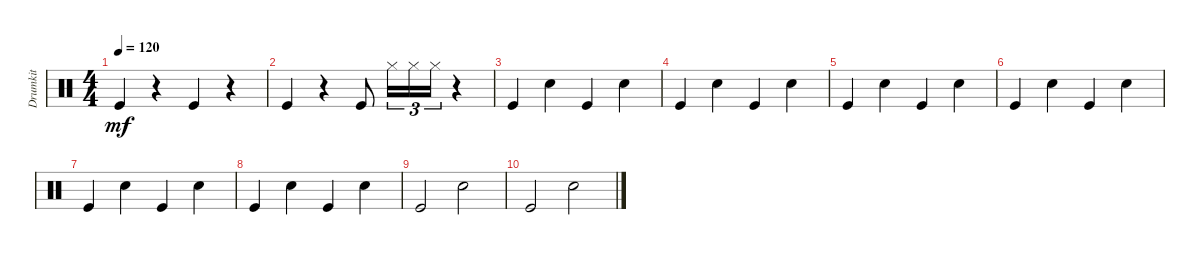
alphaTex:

\track ("Drumkit" "Drumkit") {instrument percussion}
\staff {score}
\articulation defaults
\ts (4 4)
\tempo 120
\clef neutral
\ks c "Kick (hit)".4{dy mf}
r.4 "Kick (hit)".4 r.4 |
"Kick (hit)".4 r.4 "Kick (hit)".8 "Hi-Hat (closed)".16{tu (3 2)} "Hi-Hat (closed)".16{tu (3 2)} "Hi-Hat (closed)".16{tu (3 2)} r.4 |
"Kick (hit)".4 "Snare (hit) 2".4 "Kick (hit)".4 "Snare (hit) 2".4 |
"Kick (hit)".4 "Snare (hit) 2".4 "Kick (hit)".4 "Snare (hit) 2".4 |
"Kick (hit)".4 "Snare (hit) 2".4 "Kick (hit)".4 "Snare (hit) 2".4 |
"Kick (hit)".4 "Snare (hit) 2".4 "Kick (hit)".4 "Snare (hit) 2".4 |
"Kick (hit)".4 "Snare (hit) 2".4 "Kick (hit)".4 "Snare (hit) 2".4 |
"Kick (hit)".4 "Snare (hit) 2".4 "Kick (hit)".4 "Snare (hit) 2".4 |
"Kick (hit)".2 "Snare (hit) 2".2 |
"Kick (hit)".2 "Snare (hit) 2".2
